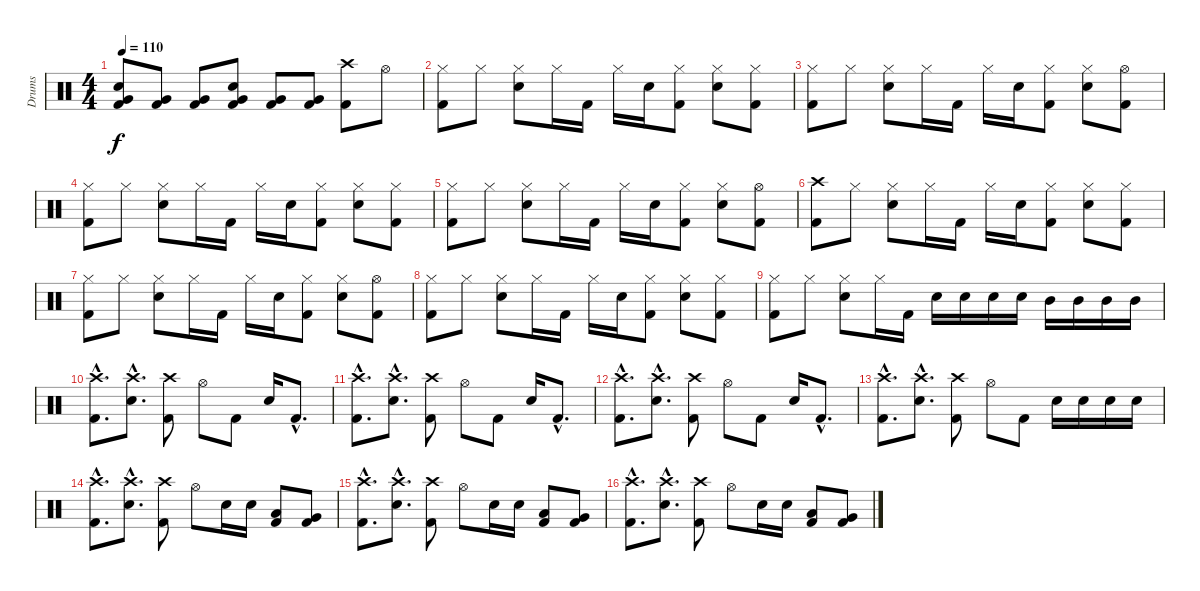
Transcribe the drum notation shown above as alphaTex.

\track ("Drums" "Drums") {instrument percussion}
\staff {score}
\articulation defaults
\ts (4 4)
\tempo 110
\clef neutral
\ks c
("Very Low Tom (hit)" "Snare (hit) 2" "Kick (hit) 2").8{dy f} ("Very Low Tom (hit)" "Kick (hit) 2").8 ("Very Low Tom (hit)" "Kick (hit) 2").8 ("Very Low Tom (hit)" "Snare (hit) 2" "Kick (hit) 2").8 ("Very Low Tom (hit)" "Kick (hit) 2").8 ("Very Low Tom (hit)" "Kick (hit) 2").8 ("Crash high (hit)" "Kick (hit) 2").8 "Hi-Hat (open)".8 |
("Hi-Hat (closed)" "Kick (hit) 2").8 "Hi-Hat (closed)".8 ("Hi-Hat (closed)" "Snare (hit) 2").8 "Hi-Hat (closed)".16 "Kick (hit) 2".16 "Hi-Hat (closed)".16 "Snare (hit) 2".16 ("Hi-Hat (closed)" "Kick (hit) 2").8 ("Hi-Hat (closed)" "Snare (hit) 2").8 ("Hi-Hat (closed)" "Kick (hit) 2").8 |
("Hi-Hat (closed)" "Kick (hit) 2").8 "Hi-Hat (closed)".8 ("Hi-Hat (closed)" "Snare (hit) 2").8 "Hi-Hat (closed)".16 "Kick (hit) 2".16 "Hi-Hat (closed)".16 "Snare (hit) 2".16 ("Hi-Hat (closed)" "Kick (hit) 2").8 ("Hi-Hat (closed)" "Snare (hit) 2").8 ("Hi-Hat (open)" "Kick (hit) 2").8 |
("Hi-Hat (closed)" "Kick (hit) 2").8 "Hi-Hat (closed)".8 ("Hi-Hat (closed)" "Snare (hit) 2").8 "Hi-Hat (closed)".16 "Kick (hit) 2".16 "Hi-Hat (closed)".16 "Snare (hit) 2".16 ("Hi-Hat (closed)" "Kick (hit) 2").8 ("Hi-Hat (closed)" "Snare (hit) 2").8 ("Hi-Hat (closed)" "Kick (hit) 2").8 |
("Hi-Hat (closed)" "Kick (hit) 2").8 "Hi-Hat (closed)".8 ("Hi-Hat (closed)" "Snare (hit) 2").8 "Hi-Hat (closed)".16 "Kick (hit) 2".16 "Hi-Hat (closed)".16 "Snare (hit) 2".16 ("Hi-Hat (closed)" "Kick (hit) 2").8 ("Hi-Hat (closed)" "Snare (hit) 2").8 ("Hi-Hat (open)" "Kick (hit) 2").8 |
("Crash high (hit)" "Kick (hit) 2").8 "Hi-Hat (closed)".8 ("Hi-Hat (closed)" "Snare (hit) 2").8 "Hi-Hat (closed)".16 "Kick (hit) 2".16 "Hi-Hat (closed)".16 "Snare (hit) 2".16 ("Hi-Hat (closed)" "Kick (hit) 2").8 ("Hi-Hat (closed)" "Snare (hit) 2").8 ("Hi-Hat (closed)" "Kick (hit) 2").8 |
("Hi-Hat (closed)" "Kick (hit) 2").8 "Hi-Hat (closed)".8 ("Hi-Hat (closed)" "Snare (hit) 2").8 "Hi-Hat (closed)".16 "Kick (hit) 2".16 "Hi-Hat (closed)".16 "Snare (hit) 2".16 ("Hi-Hat (closed)" "Kick (hit) 2").8 ("Hi-Hat (closed)" "Snare (hit) 2").8 ("Hi-Hat (open)" "Kick (hit) 2").8 |
("Hi-Hat (closed)" "Kick (hit) 2").8 "Hi-Hat (closed)".8 ("Hi-Hat (closed)" "Snare (hit) 2").8 "Hi-Hat (closed)".16 "Kick (hit) 2".16 "Hi-Hat (closed)".16 "Snare (hit) 2".16 ("Hi-Hat (closed)" "Kick (hit) 2").8 ("Hi-Hat (closed)" "Snare (hit) 2").8 ("Hi-Hat (closed)" "Kick (hit) 2").8 |
("Hi-Hat (closed)" "Kick (hit) 2").8 "Hi-Hat (closed)".8 ("Hi-Hat (closed)" "Snare (hit) 2").8 "Hi-Hat (closed)".16 "Kick (hit) 2".16 "Snare (hit) 2".16 "Snare (hit) 2".16 "Snare (hit) 2".16 "Snare (hit) 2".16 "Mid Tom (hit)".16 "Mid Tom (hit)".16 "Mid Tom (hit)".16 "Mid Tom (hit)".16 |
("Crash high (hit)"{hac} "Kick (hit) 2"{hac}).8{d} ("Crash high (hit)"{hac} "Snare (hit) 2"{hac}).8{d} ("Crash high (hit)" "Kick (hit) 2").8 "Hi-Hat (open)".8 "Kick (hit) 2".8 "Snare (hit) 2".16 "Kick (hit) 2"{hac}.8{d} |
("Crash high (hit)"{hac} "Kick (hit) 2"{hac}).8{d} ("Crash high (hit)"{hac} "Snare (hit) 2"{hac}).8{d} ("Crash high (hit)" "Kick (hit) 2").8 "Hi-Hat (open)".8 "Kick (hit) 2".8 "Snare (hit) 2".16 "Kick (hit) 2"{hac}.8{d} |
("Crash high (hit)"{hac} "Kick (hit) 2"{hac}).8{d} ("Crash high (hit)"{hac} "Snare (hit) 2"{hac}).8{d} ("Crash high (hit)" "Kick (hit) 2").8 "Hi-Hat (open)".8 "Kick (hit) 2".8 "Snare (hit) 2".16 "Kick (hit) 2"{hac}.8{d} |
("Crash high (hit)"{hac} "Kick (hit) 2"{hac}).8{d} ("Crash high (hit)"{hac} "Snare (hit) 2"{hac}).8{d} ("Crash high (hit)" "Kick (hit) 2").8 "Hi-Hat (open)".8 "Kick (hit) 2".8 "Snare (hit) 2".16 "Snare (hit) 2".16 "Snare (hit) 2".16 "Snare (hit) 2".16 |
("Crash high (hit)"{hac} "Kick (hit) 2"{hac}).8{d} ("Crash high (hit)"{hac} "Snare (hit) 2"{hac}).8{d} ("Crash high (hit)" "Kick (hit) 2").8 "Hi-Hat (open)".8 "Snare (hit) 2".16 "Snare (hit) 2".16 ("Low Tom (hit)" "Kick (hit) 2").8 ("Very Low Tom (hit)" "Kick (hit) 2").8 |
("Crash high (hit)"{hac} "Kick (hit) 2"{hac}).8{d} ("Crash high (hit)"{hac} "Snare (hit) 2"{hac}).8{d} ("Crash high (hit)" "Kick (hit) 2").8 "Hi-Hat (open)".8 "Snare (hit) 2".16 "Snare (hit) 2".16 ("Low Tom (hit)" "Kick (hit) 2").8 ("Very Low Tom (hit)" "Kick (hit) 2").8 |
("Crash high (hit)"{hac} "Kick (hit) 2"{hac}).8{d} ("Crash high (hit)"{hac} "Snare (hit) 2"{hac}).8{d} ("Crash high (hit)" "Kick (hit) 2").8 "Hi-Hat (open)".8 "Snare (hit) 2".16 "Snare (hit) 2".16 ("Low Tom (hit)" "Kick (hit) 2").8 ("Very Low Tom (hit)" "Kick (hit) 2").8
